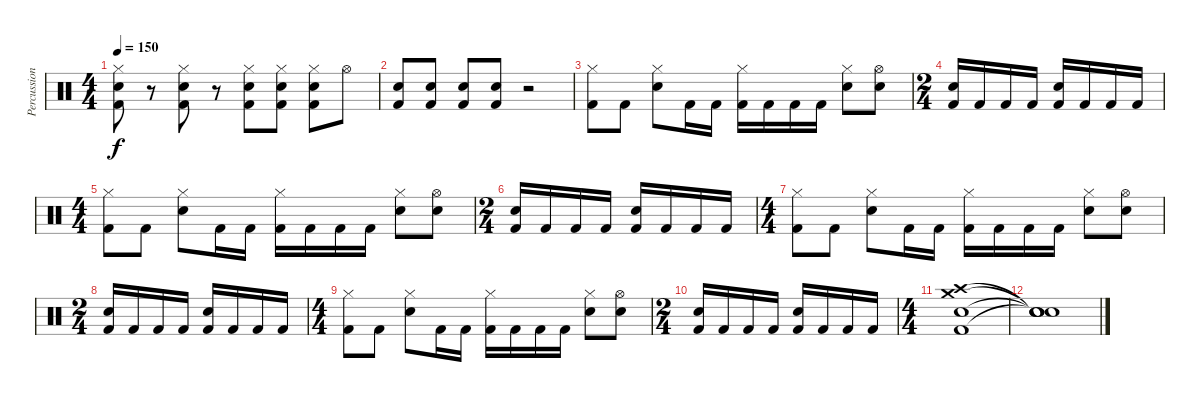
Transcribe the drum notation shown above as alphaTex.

\track ("Percussion" "Percussion") {instrument percussion}
\staff {score}
\articulation defaults
\ts (4 4)
\tempo 150
\clef neutral
\ks c
("Hi-Hat (closed)" "Snare (hit) 2" "Kick (hit) 2").8{dy f} r.8 ("Hi-Hat (closed)" "Snare (hit) 2" "Kick (hit) 2").8 r.8 ("Hi-Hat (closed)" "Snare (hit) 2" "Kick (hit) 2").8 ("Hi-Hat (closed)" "Snare (hit) 2" "Kick (hit) 2").8 ("Hi-Hat (closed)" "Snare (hit) 2" "Kick (hit) 2").8 "Hi-Hat (open)".8 |
("Kick (hit) 2" "Snare (hit) 2").8 ("Kick (hit) 2" "Snare (hit) 2").8 ("Kick (hit) 2" "Snare (hit) 2").8 ("Kick (hit) 2" "Snare (hit) 2").8 r.2 |
("Hi-Hat (closed)" "Kick (hit) 2").8 "Kick (hit) 2".8 ("Hi-Hat (closed)" "Snare (hit) 2").8 "Kick (hit) 2".16 "Kick (hit) 2".16 ("Hi-Hat (closed)" "Kick (hit) 2").16 "Kick (hit) 2".16 "Kick (hit) 2".16 "Kick (hit) 2".16 ("Hi-Hat (closed)" "Snare (hit) 2").8 ("Hi-Hat (open)" "Snare (hit) 2").8 |
\ts (2 4)
("Snare (hit) 2" "Kick (hit) 2").16 "Kick (hit) 2".16 "Kick (hit) 2".16 "Kick (hit) 2".16 ("Snare (hit) 2" "Kick (hit) 2").16 "Kick (hit) 2".16 "Kick (hit) 2".16 "Kick (hit) 2".16 |
\ts (4 4)
("Hi-Hat (closed)" "Kick (hit) 2").8 "Kick (hit) 2".8 ("Hi-Hat (closed)" "Snare (hit) 2").8 "Kick (hit) 2".16 "Kick (hit) 2".16 ("Hi-Hat (closed)" "Kick (hit) 2").16 "Kick (hit) 2".16 "Kick (hit) 2".16 "Kick (hit) 2".16 ("Hi-Hat (closed)" "Snare (hit) 2").8 ("Hi-Hat (open)" "Snare (hit) 2").8 |
\ts (2 4)
("Snare (hit) 2" "Kick (hit) 2").16 "Kick (hit) 2".16 "Kick (hit) 2".16 "Kick (hit) 2".16 ("Snare (hit) 2" "Kick (hit) 2").16 "Kick (hit) 2".16 "Kick (hit) 2".16 "Kick (hit) 2".16 |
\ts (4 4)
("Hi-Hat (closed)" "Kick (hit) 2").8 "Kick (hit) 2".8 ("Hi-Hat (closed)" "Snare (hit) 2").8 "Kick (hit) 2".16 "Kick (hit) 2".16 ("Hi-Hat (closed)" "Kick (hit) 2").16 "Kick (hit) 2".16 "Kick (hit) 2".16 "Kick (hit) 2".16 ("Hi-Hat (closed)" "Snare (hit) 2").8 ("Hi-Hat (open)" "Snare (hit) 2").8 |
\ts (2 4)
("Snare (hit) 2" "Kick (hit) 2").16 "Kick (hit) 2".16 "Kick (hit) 2".16 "Kick (hit) 2".16 ("Snare (hit) 2" "Kick (hit) 2").16 "Kick (hit) 2".16 "Kick (hit) 2".16 "Kick (hit) 2".16 |
\ts (4 4)
("Hi-Hat (closed)" "Kick (hit) 2").8 "Kick (hit) 2".8 ("Hi-Hat (closed)" "Snare (hit) 2").8 "Kick (hit) 2".16 "Kick (hit) 2".16 ("Hi-Hat (closed)" "Kick (hit) 2").16 "Kick (hit) 2".16 "Kick (hit) 2".16 "Kick (hit) 2".16 ("Hi-Hat (closed)" "Snare (hit) 2").8 ("Hi-Hat (open)" "Snare (hit) 2").8 |
\ts (2 4)
("Snare (hit) 2" "Kick (hit) 2").16 "Kick (hit) 2".16 "Kick (hit) 2".16 "Kick (hit) 2".16 ("Snare (hit) 2" "Kick (hit) 2").16 "Kick (hit) 2".16 "Kick (hit) 2".16 "Kick (hit) 2".16 |
\ts (4 4)
("Kick (hit) 2" "Snare (hit) 2" "Crash medium (hit)" "Crash high (hit)").1 |
("Snare (hit)"{t} "Snare (hit)"{t} "Snare (hit)"{t} "Snare (hit)"{t}).1
